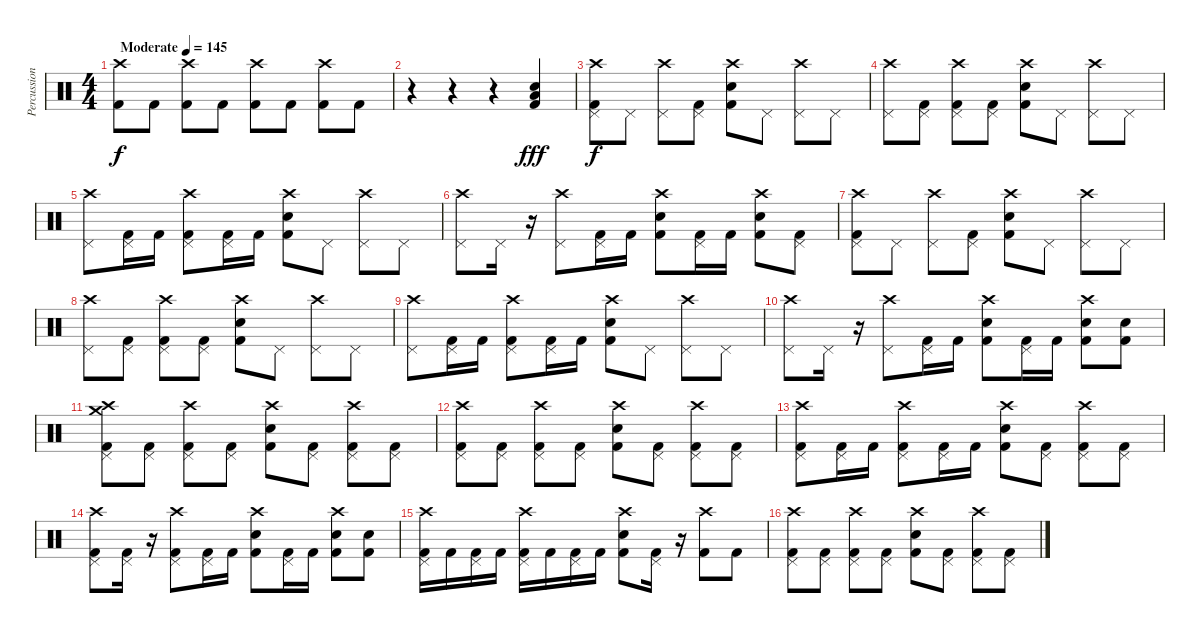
\track ("Percussion" "Percussion") {instrument percussion}
\staff {score}
\articulation defaults
\ts (4 4)
\tempo (145 "Moderate")
\clef neutral
\ks c
("Crash high (hit)" "Kick (hit) 2").8{dy f} "Kick (hit) 2".8 ("Crash high (hit)" "Kick (hit) 2").8 "Kick (hit) 2".8 ("Crash high (hit)" "Kick (hit) 2").8 "Kick (hit) 2".8 ("Crash high (hit)" "Kick (hit) 2").8 "Kick (hit) 2".8 |
r.4 r.4 r.4 ("Snare (hit) 2" "Low Tom (hit)" "Kick (hit) 2").4{dy fff} |
("Crash high (hit)" "Pedal Hi-Hat (hit)" "Kick (hit) 2").8{dy f} "Pedal Hi-Hat (hit)".8 ("Crash high (hit)" "Pedal Hi-Hat (hit)").8 ("Pedal Hi-Hat (hit)" "Kick (hit) 2").8 ("Crash high (hit)" "Snare (hit) 2" "Kick (hit) 2").8 "Pedal Hi-Hat (hit)".8 ("Crash high (hit)" "Pedal Hi-Hat (hit)").8 "Pedal Hi-Hat (hit)".8 |
("Crash high (hit)" "Pedal Hi-Hat (hit)").8 ("Pedal Hi-Hat (hit)" "Kick (hit) 2").8 ("Crash high (hit)" "Pedal Hi-Hat (hit)" "Kick (hit) 2").8 ("Pedal Hi-Hat (hit)" "Kick (hit) 2").8 ("Crash high (hit)" "Snare (hit) 2" "Kick (hit) 2").8 "Pedal Hi-Hat (hit)".8 ("Crash high (hit)" "Pedal Hi-Hat (hit)").8 "Pedal Hi-Hat (hit)".8 |
("Crash high (hit)" "Pedal Hi-Hat (hit)").8 ("Pedal Hi-Hat (hit)" "Kick (hit) 2").16 "Kick (hit) 2".16 ("Crash high (hit)" "Pedal Hi-Hat (hit)" "Kick (hit) 2").8 ("Pedal Hi-Hat (hit)" "Kick (hit) 2").16 "Kick (hit) 2".16 ("Crash high (hit)" "Snare (hit) 2" "Kick (hit) 2").8 "Pedal Hi-Hat (hit)".8 ("Crash high (hit)" "Pedal Hi-Hat (hit)").8 "Pedal Hi-Hat (hit)".8 |
("Crash high (hit)" "Pedal Hi-Hat (hit)").8 "Pedal Hi-Hat (hit)".16 r.16 ("Crash high (hit)" "Pedal Hi-Hat (hit)").8 ("Pedal Hi-Hat (hit)" "Kick (hit) 2").16 "Kick (hit) 2".16 ("Crash high (hit)" "Snare (hit) 2" "Kick (hit) 2").8 ("Pedal Hi-Hat (hit)" "Kick (hit) 2").16 "Kick (hit) 2".16 ("Crash high (hit)" "Snare (hit) 2" "Kick (hit) 2").8 ("Pedal Hi-Hat (hit)" "Kick (hit) 2").8 |
("Crash high (hit)" "Pedal Hi-Hat (hit)" "Kick (hit) 2").8 "Pedal Hi-Hat (hit)".8 ("Crash high (hit)" "Pedal Hi-Hat (hit)").8 ("Pedal Hi-Hat (hit)" "Kick (hit) 2").8 ("Crash high (hit)" "Snare (hit) 2" "Kick (hit) 2").8 "Pedal Hi-Hat (hit)".8 ("Crash high (hit)" "Pedal Hi-Hat (hit)").8 "Pedal Hi-Hat (hit)".8 |
("Crash high (hit)" "Pedal Hi-Hat (hit)").8 ("Pedal Hi-Hat (hit)" "Kick (hit) 2").8 ("Crash high (hit)" "Pedal Hi-Hat (hit)" "Kick (hit) 2").8 ("Pedal Hi-Hat (hit)" "Kick (hit) 2").8 ("Crash high (hit)" "Snare (hit) 2" "Kick (hit) 2").8 "Pedal Hi-Hat (hit)".8 ("Crash high (hit)" "Pedal Hi-Hat (hit)").8 "Pedal Hi-Hat (hit)".8 |
("Crash high (hit)" "Pedal Hi-Hat (hit)").8 ("Pedal Hi-Hat (hit)" "Kick (hit) 2").16 "Kick (hit) 2".16 ("Crash high (hit)" "Pedal Hi-Hat (hit)" "Kick (hit) 2").8 ("Pedal Hi-Hat (hit)" "Kick (hit) 2").16 "Kick (hit) 2".16 ("Crash high (hit)" "Snare (hit) 2" "Kick (hit) 2").8 "Pedal Hi-Hat (hit)".8 ("Crash high (hit)" "Pedal Hi-Hat (hit)").8 "Pedal Hi-Hat (hit)".8 |
("Crash high (hit)" "Pedal Hi-Hat (hit)").8 "Pedal Hi-Hat (hit)".16 r.16 ("Crash high (hit)" "Pedal Hi-Hat (hit)").8 ("Pedal Hi-Hat (hit)" "Kick (hit) 2").16 "Kick (hit) 2".16 ("Crash high (hit)" "Snare (hit) 2" "Kick (hit) 2").8 ("Pedal Hi-Hat (hit)" "Kick (hit) 2").16 "Kick (hit) 2".16 ("Crash high (hit)" "Snare (hit) 2" "Kick (hit) 2").8 ("Snare (hit) 2" "Kick (hit) 2").8 |
("Crash medium (hit)" "Crash high (hit)" "Pedal Hi-Hat (hit)" "Kick (hit) 2").8 ("Pedal Hi-Hat (hit)" "Kick (hit) 2").8 ("Crash high (hit)" "Pedal Hi-Hat (hit)" "Kick (hit) 2").8 ("Pedal Hi-Hat (hit)" "Kick (hit) 2").8 ("Crash high (hit)" "Snare (hit) 2" "Kick (hit) 2").8 ("Pedal Hi-Hat (hit)" "Kick (hit) 2").8 ("Crash high (hit)" "Pedal Hi-Hat (hit)" "Kick (hit) 2").8 ("Pedal Hi-Hat (hit)" "Kick (hit) 2").8 |
("Crash high (hit)" "Pedal Hi-Hat (hit)" "Kick (hit) 2").8 ("Pedal Hi-Hat (hit)" "Kick (hit) 2").8 ("Crash high (hit)" "Pedal Hi-Hat (hit)" "Kick (hit) 2").8 ("Pedal Hi-Hat (hit)" "Kick (hit) 2").8 ("Crash high (hit)" "Snare (hit) 2" "Kick (hit) 2").8 ("Pedal Hi-Hat (hit)" "Kick (hit) 2").8 ("Crash high (hit)" "Pedal Hi-Hat (hit)" "Kick (hit) 2").8 ("Pedal Hi-Hat (hit)" "Kick (hit) 2").8 |
("Crash high (hit)" "Pedal Hi-Hat (hit)" "Kick (hit) 2").8 ("Pedal Hi-Hat (hit)" "Kick (hit) 2").16 "Kick (hit) 2".16 ("Crash high (hit)" "Pedal Hi-Hat (hit)" "Kick (hit) 2").8 ("Pedal Hi-Hat (hit)" "Kick (hit) 2").16 "Kick (hit) 2".16 ("Crash high (hit)" "Snare (hit) 2" "Kick (hit) 2").8 ("Pedal Hi-Hat (hit)" "Kick (hit) 2").8 ("Crash high (hit)" "Pedal Hi-Hat (hit)" "Kick (hit) 2").8 ("Pedal Hi-Hat (hit)" "Kick (hit) 2").8 |
("Crash high (hit)" "Pedal Hi-Hat (hit)" "Kick (hit) 2").8 ("Pedal Hi-Hat (hit)" "Kick (hit) 2").16 r.16 ("Crash high (hit)" "Pedal Hi-Hat (hit)" "Kick (hit) 2").8 ("Pedal Hi-Hat (hit)" "Kick (hit) 2").16 "Kick (hit) 2".16 ("Crash high (hit)" "Snare (hit) 2" "Kick (hit) 2").8 ("Pedal Hi-Hat (hit)" "Kick (hit) 2").16 "Kick (hit) 2".16 ("Crash high (hit)" "Snare (hit) 2" "Kick (hit) 2").8 ("Snare (hit) 2" "Kick (hit) 2").8 |
("Crash high (hit)" "Pedal Hi-Hat (hit)" "Kick (hit) 2").16 "Kick (hit) 2".16 ("Pedal Hi-Hat (hit)" "Kick (hit) 2").16 "Kick (hit) 2".16 ("Crash high (hit)" "Pedal Hi-Hat (hit)" "Kick (hit) 2").16 "Kick (hit) 2".16 ("Pedal Hi-Hat (hit)" "Kick (hit) 2").16 "Kick (hit) 2".16 ("Crash high (hit)" "Snare (hit) 2" "Kick (hit) 2").8 ("Pedal Hi-Hat (hit)" "Kick (hit) 2").16 r.16 ("Crash high (hit)" "Kick (hit) 2").8 "Kick (hit) 2".8 |
("Crash high (hit)" "Pedal Hi-Hat (hit)" "Kick (hit) 2").8 ("Pedal Hi-Hat (hit)" "Kick (hit) 2").8 ("Crash high (hit)" "Pedal Hi-Hat (hit)" "Kick (hit) 2").8 ("Pedal Hi-Hat (hit)" "Kick (hit) 2").8 ("Crash high (hit)" "Snare (hit) 2" "Kick (hit) 2").8 ("Pedal Hi-Hat (hit)" "Kick (hit) 2").8 ("Crash high (hit)" "Pedal Hi-Hat (hit)" "Kick (hit) 2").8 ("Pedal Hi-Hat (hit)" "Kick (hit) 2").8
